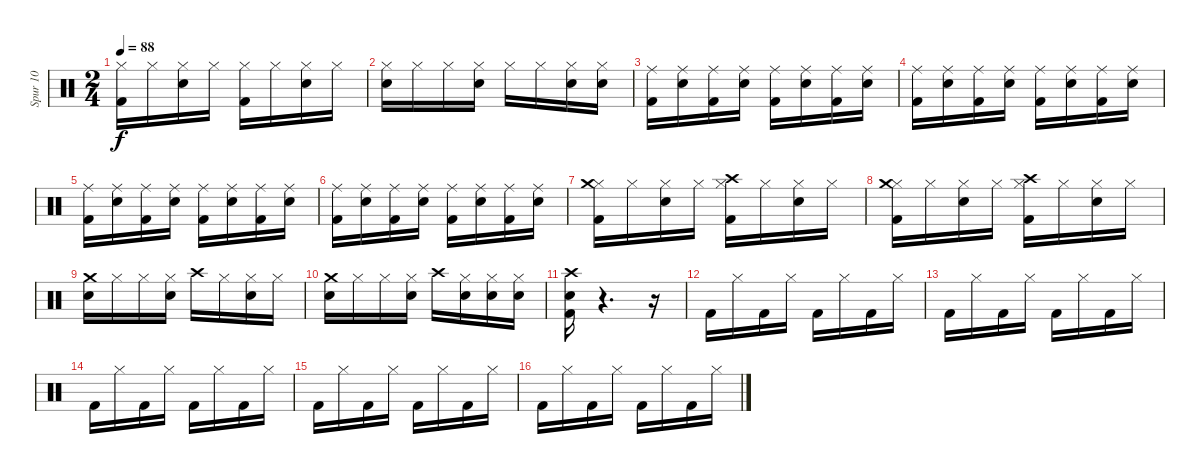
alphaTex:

\track ("Spur 10" "Spur 10") {instrument percussion}
\staff {score}
\articulation defaults
\ts (2 4)
\tempo 88
\clef neutral
\ks c
("Hi-Hat (closed)" "Kick (hit) 2").16{dy f} "Hi-Hat (closed)".16 ("Hi-Hat (closed)" "Electric Snare (hit)").16 "Hi-Hat (closed)".16 ("Hi-Hat (closed)" "Kick (hit) 2").16 "Hi-Hat (closed)".16 ("Hi-Hat (closed)" "Electric Snare (hit)").16 "Hi-Hat (closed)".16 |
("Electric Snare (hit)" "Hi-Hat (closed)").16 "Hi-Hat (closed)".16 "Hi-Hat (closed)".16 ("Snare (hit) 2" "Hi-Hat (closed)").16 "Hi-Hat (closed)".16 "Hi-Hat (closed)".16 ("Snare (hit) 2" "Hi-Hat (closed)").16 ("Electric Snare (hit)" "Hi-Hat (closed)").16 |
("Ride (middle)" "Kick (hit) 2").16 ("Ride (middle)" "Snare (hit) 2").16 ("Ride (middle)" "Kick (hit) 2").16 ("Ride (middle)" "Snare (hit) 2").16 ("Ride (middle)" "Kick (hit) 2").16 ("Ride (middle)" "Snare (hit) 2").16 ("Ride (middle)" "Kick (hit) 2").16 ("Ride (middle)" "Snare (hit) 2").16 |
("Ride (middle)" "Kick (hit) 2").16 ("Ride (middle)" "Snare (hit) 2").16 ("Ride (middle)" "Kick (hit) 2").16 ("Ride (middle)" "Snare (hit) 2").16 ("Ride (middle)" "Kick (hit) 2").16 ("Ride (middle)" "Snare (hit) 2").16 ("Ride (middle)" "Kick (hit) 2").16 ("Ride (middle)" "Snare (hit) 2").16 |
("Ride (middle)" "Kick (hit) 2").16 ("Ride (middle)" "Snare (hit) 2").16 ("Ride (middle)" "Kick (hit) 2").16 ("Ride (middle)" "Snare (hit) 2").16 ("Ride (middle)" "Kick (hit) 2").16 ("Ride (middle)" "Snare (hit) 2").16 ("Ride (middle)" "Kick (hit) 2").16 ("Ride (middle)" "Snare (hit) 2").16 |
("Ride (middle)" "Kick (hit) 2").16 ("Ride (middle)" "Snare (hit) 2").16 ("Ride (middle)" "Kick (hit) 2").16 ("Ride (middle)" "Snare (hit) 2").16 ("Ride (middle)" "Kick (hit) 2").16 ("Ride (middle)" "Snare (hit) 2").16 ("Ride (middle)" "Kick (hit) 2").16 ("Ride (middle)" "Snare (hit) 2").16 |
("Hi-Hat (closed)" "Crash medium (hit)" "Kick (hit) 2").16 "Hi-Hat (closed)".16 ("Hi-Hat (closed)" "Electric Snare (hit)").16 "Hi-Hat (closed)".16 ("Hi-Hat (closed)" "Crash high (hit)" "Kick (hit) 2").16 "Hi-Hat (closed)".16 ("Hi-Hat (closed)" "Electric Snare (hit)").16 "Hi-Hat (closed)".16 |
("Hi-Hat (closed)" "Crash medium (hit)" "Kick (hit) 2").16 "Hi-Hat (closed)".16 ("Hi-Hat (closed)" "Electric Snare (hit)").16 "Hi-Hat (closed)".16 ("Hi-Hat (closed)" "Crash high (hit)" "Kick (hit) 2").16 "Hi-Hat (closed)".16 ("Hi-Hat (closed)" "Electric Snare (hit)").16 "Hi-Hat (closed)".16 |
("Snare (hit) 2" "Crash medium (hit)").16 "Hi-Hat (closed)".16 "Hi-Hat (closed)".16 ("Snare (hit) 2" "Hi-Hat (closed)").16 "Crash high (hit)".16 "Hi-Hat (closed)".16 ("Snare (hit) 2" "Hi-Hat (closed)").16 "Hi-Hat (closed)".16 |
("Snare (hit) 2" "Crash medium (hit)").16 "Hi-Hat (closed)".16 "Hi-Hat (closed)".16 ("Electric Snare (hit)" "Hi-Hat (closed)").16 "Crash high (hit)".16 ("Electric Snare (hit)" "Hi-Hat (closed)").16 ("Snare (hit) 2" "Hi-Hat (closed)").16 ("Electric Snare (hit)" "Hi-Hat (closed)").16 |
("Kick (hit) 2" "Snare (hit) 2" "Crash high (hit)").16 r.4{d} r.16 |
"Kick (hit) 2".16 "Hi-Hat (closed)".16 "Kick (hit) 2".16 "Hi-Hat (closed)".16 "Kick (hit) 2".16 "Hi-Hat (closed)".16 "Kick (hit) 2".16 "Hi-Hat (closed)".16 |
"Kick (hit) 2".16 "Hi-Hat (closed)".16 "Kick (hit) 2".16 "Hi-Hat (closed)".16 "Kick (hit) 2".16 "Hi-Hat (closed)".16 "Kick (hit) 2".16 "Hi-Hat (closed)".16 |
"Kick (hit) 2".16 "Hi-Hat (closed)".16 "Kick (hit) 2".16 "Hi-Hat (closed)".16 "Kick (hit) 2".16 "Hi-Hat (closed)".16 "Kick (hit) 2".16 "Hi-Hat (closed)".16 |
"Kick (hit) 2".16 "Hi-Hat (closed)".16 "Kick (hit) 2".16 "Hi-Hat (closed)".16 "Kick (hit) 2".16 "Hi-Hat (closed)".16 "Kick (hit) 2".16 "Hi-Hat (closed)".16 |
"Kick (hit) 2".16 "Hi-Hat (closed)".16 "Kick (hit) 2".16 "Hi-Hat (closed)".16 "Kick (hit) 2".16 "Hi-Hat (closed)".16 "Kick (hit) 2".16 "Hi-Hat (closed)".16
